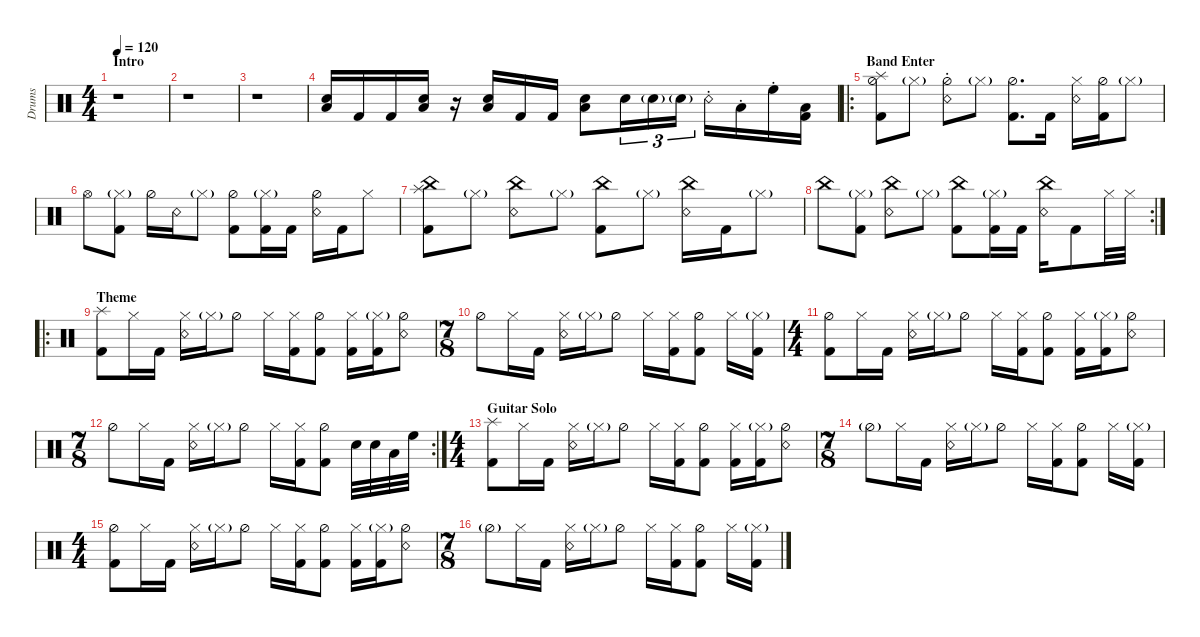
\defaultSystemsLayout 2
\hideDynamics
\bracketExtendMode nobrackets
\otherSystemsTrackNameOrientation horizontal
\track ("Drums" "Drums") {defaultSystemsLayout 2 instrument percussion}
\staff {score}
\articulation defaults
\ts (4 4)
\section ("" "Intro")
\scale
1.06692
\tempo 120
\accidentals auto
\clef neutral
\ottava regular
\simile none
\scale
1.33256
\ks c
r.1{dy mf} |
\scale
0.933075
\scale
1.33256 r.1 |
\scale
1.04547
\scale
1.33256 r.1 |
\scale
0.954526
\scale
0.667436 ("Snare (hit) 2" "Low Floor Tom (hit)").16 "Kick (hit) 2".16{dy ff} "Kick (hit) 2".16 ("Low Floor Tom (hit)" "Snare (hit) 2").16{dy mf} r.16 ("Snare (hit) 2" "Low Floor Tom (hit)").16 "Kick (hit) 2".16{dy ff} "Kick (hit) 2".16 ("Low Floor Tom (hit)" "Snare (hit) 2").8{dy mf beam merge} "Snare (hit) 2".16{tu (3 2) dy ff} "Snare (hit) 2"{g}.16{tu (3 2)} "Snare (hit) 2"{g}.16{tu (3 2)} "Snare (rim shot)"{st}.16 "Low Tom (hit)"{st}.16{dy fff} "High Floor Tom (hit)"{st}.16 ("Low Floor Tom (hit)" "Kick (hit) 2").16 |
\ro
\section ("" "Band Enter")
\scale
1.05463
\scale
1.01593 ("Kick (hit) 2" "Hi-Hat (half)" "Splash (hit)").8{dy ff} "Hi-Hat (closed)"{g}.8 ("Snare (rim shot)"{st} "Hi-Hat (half)").8 "Hi-Hat (closed)"{g}.8 ("Hi-Hat (half)" "Kick (hit) 2").8{d} "Kick (hit) 2".16 ("Snare (rim shot)" "Hi-Hat (closed)").16 ("Kick (hit) 2" "Hi-Hat (half)").16 "Hi-Hat (closed)"{g}.8 |
\scale
0.945368
\scale
0.98407 "Hi-Hat (open)".8 ("Hi-Hat (closed)"{g} "Kick (hit) 2").8 "Hi-Hat (half)".16 "Snare (rim shot)".16 "Hi-Hat (closed)"{g}.8 ("Kick (hit) 2" "Hi-Hat (half)").8 ("Hi-Hat (closed)"{g} "Kick (hit) 2").16 "Kick (hit) 2".16 ("Snare (rim shot)" "Hi-Hat (half)").16 "Kick (hit) 2".16 "Hi-Hat (closed)".8 |
\scale
1.02968
\scale
1.01792 ("Kick (hit) 2" "Splash (hit)" "China (hit)").8 "Hi-Hat (closed)"{g}.8 ("Snare (rim shot)" "China (hit)").8 "Hi-Hat (closed)"{g}.8 ("Kick (hit) 2" "China (hit)").8 "Hi-Hat (closed)"{g}.8 ("Snare (rim shot)" "China (hit)").16 "Kick (hit) 2".16 "Hi-Hat (closed)"{g}.8 |
\rc 2
\scale
0.970316
\scale
0.982083 "China (hit)".8 ("Hi-Hat (closed)"{g} "Kick (hit) 2").8 ("Snare (rim shot)" "China (hit)").8 "Hi-Hat (closed)"{g}.8 ("Kick (hit) 2" "China (hit)").8 ("Hi-Hat (closed)"{g} "Kick (hit) 2").16 "Kick (hit) 2".16 ("Snare (rim shot)" "China (hit)").16 "Kick (hit) 2".8 "Hi-Hat (closed)".32 "Hi-Hat (closed)".32 |
\ro
\section ("" "Theme")
\scale
1.0183
\scale
1.0169 ("Kick (hit) 2" "Splash (hit)").8 "Hi-Hat (closed)".16 "Kick (hit) 2".16 ("Snare (rim shot)" "Hi-Hat (closed)").16 "Hi-Hat (closed)"{g}.16 "Hi-Hat (half)".8 "Hi-Hat (closed)".16 ("Hi-Hat (closed)" "Kick (hit) 2").16 ("Hi-Hat (half)" "Kick (hit) 2").8 ("Kick (hit) 2" "Hi-Hat (closed)").16 ("Kick (hit) 2" "Hi-Hat (closed)"{g}).16 ("Snare (rim shot)" "Hi-Hat (half)").8 |
\ts (7 8)
\scale
0.981697
\scale
0.983101 "Hi-Hat (half)".8 "Hi-Hat (closed)".16 "Kick (hit) 2".16{beam split} ("Snare (rim shot)" "Hi-Hat (closed)").16 "Hi-Hat (closed)"{g}.16{beam merge} "Hi-Hat (half)".8{beam split} "Hi-Hat (closed)".16 ("Hi-Hat (closed)" "Kick (hit) 2").16{beam merge} ("Hi-Hat (half)" "Kick (hit) 2").8{beam split} "Hi-Hat (closed)".16 ("Kick (hit) 2" "Hi-Hat (closed)"{g}).16 |
\ts (4 4)
\scale
1.01481
\scale
1.01962 ("Hi-Hat (half)" "Kick (hit) 2").8 "Hi-Hat (closed)".16 "Kick (hit) 2".16 ("Snare (rim shot)" "Hi-Hat (closed)").16 "Hi-Hat (closed)"{g}.16 "Hi-Hat (half)".8 "Hi-Hat (closed)".16 ("Hi-Hat (closed)" "Kick (hit) 2").16 ("Hi-Hat (half)" "Kick (hit) 2").8 ("Kick (hit) 2" "Hi-Hat (closed)").16 ("Kick (hit) 2" "Hi-Hat (closed)"{g}).16 ("Snare (rim shot)" "Hi-Hat (half)").8 |
\rc 2
\ts (7 8)
\scale
0.985193
\scale
0.980379 "Hi-Hat (half)".8 "Hi-Hat (closed)".16 "Kick (hit) 2".16{beam split} ("Snare (rim shot)" "Hi-Hat (closed)").16 "Hi-Hat (closed)"{g}.16{beam merge} "Hi-Hat (half)".8{beam split} "Hi-Hat (closed)".16 ("Hi-Hat (closed)" "Kick (hit) 2").16{beam merge} ("Hi-Hat (half)" "Kick (hit) 2").8{beam split} "Snare (hit) 2".32 "Snare (hit) 2".32 "Low Tom (hit)".32 "High Floor Tom (hit)".32 |
\ts (4 4)
\section ("" "Guitar Solo")
\scale
1.0306
\scale
1.0209 ("Kick (hit) 2" "Splash (hit)").8{dy mp} "Hi-Hat (closed)".16 "Kick (hit) 2".16 ("Snare (rim shot)" "Hi-Hat (closed)").16 "Hi-Hat (closed)"{g}.16 "Hi-Hat (half)".8 "Hi-Hat (closed)".16 ("Hi-Hat (closed)" "Kick (hit) 2").16 ("Hi-Hat (half)" "Kick (hit) 2").8 ("Kick (hit) 2" "Hi-Hat (closed)").16 ("Kick (hit) 2" "Hi-Hat (closed)"{g}).16 ("Snare (rim shot)" "Hi-Hat (half)").8 |
\ts (7 8)
\scale
0.969404
\scale
0.979098 "Hi-Hat (half)"{g}.8 "Hi-Hat (closed)".16 "Kick (hit) 2".16{beam split} ("Snare (rim shot)" "Hi-Hat (closed)").16 "Hi-Hat (closed)"{g}.16{beam merge} "Hi-Hat (half)".8{beam split} "Hi-Hat (closed)".16 ("Hi-Hat (closed)" "Kick (hit) 2").16{beam merge} ("Hi-Hat (half)" "Kick (hit) 2").8{beam split} "Hi-Hat (closed)".16 ("Kick (hit) 2" "Hi-Hat (closed)"{g}).16 |
\ts (4 4)
\scale
1.0306
\scale
1.0209 ("Kick (hit) 2" "Hi-Hat (half)").8 "Hi-Hat (closed)".16 "Kick (hit) 2".16 ("Snare (rim shot)" "Hi-Hat (closed)").16 "Hi-Hat (closed)"{g}.16 "Hi-Hat (half)".8 "Hi-Hat (closed)".16 ("Hi-Hat (closed)" "Kick (hit) 2").16 ("Hi-Hat (half)" "Kick (hit) 2").8 ("Kick (hit) 2" "Hi-Hat (closed)").16 ("Kick (hit) 2" "Hi-Hat (closed)"{g}).16 ("Snare (rim shot)" "Hi-Hat (half)").8 |
\ts (7 8)
\scale
0.969404
\scale
0.979098 "Hi-Hat (half)"{g}.8 "Hi-Hat (closed)".16 "Kick (hit) 2".16{beam split} ("Snare (rim shot)" "Hi-Hat (closed)").16 "Hi-Hat (closed)"{g}.16{beam merge} "Hi-Hat (half)".8{beam split} "Hi-Hat (closed)".16 ("Hi-Hat (closed)" "Kick (hit) 2").16{beam merge} ("Hi-Hat (half)" "Kick (hit) 2").8{beam split} "Hi-Hat (closed)".16 ("Kick (hit) 2" "Hi-Hat (closed)"{g}).16
